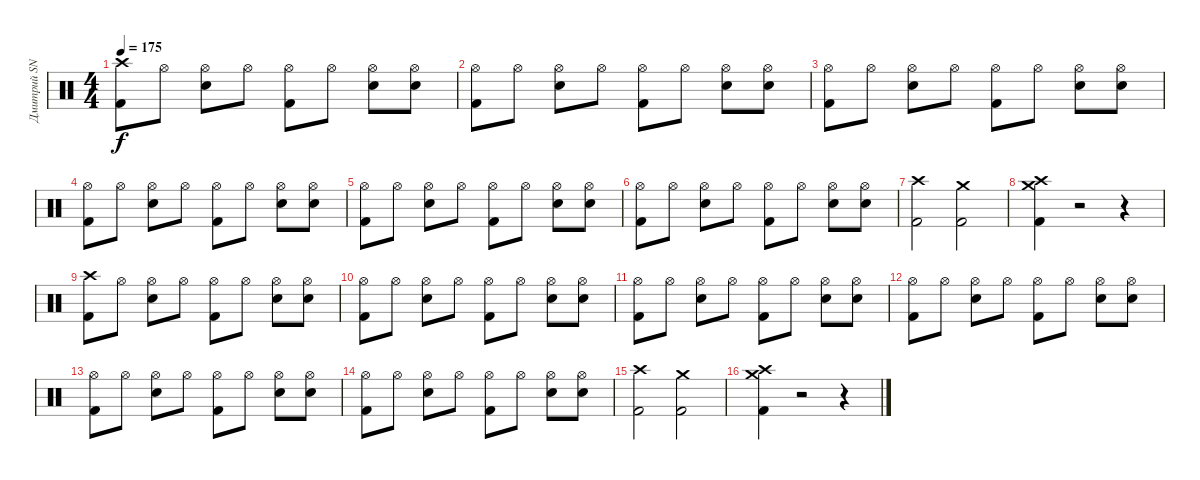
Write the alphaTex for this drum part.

\track ("Дмитрий SNAKE Хакимов" "Дмитрий SN") {instrument percussion}
\staff {score}
\articulation defaults
\ts (4 4)
\tempo 175
\clef neutral
\ks c
("Crash high (hit)" "Kick (hit) 2").8{dy f} "Hi-Hat (open)".8 ("Hi-Hat (open)" "Snare (hit) 2").8 "Hi-Hat (open)".8 ("Hi-Hat (open)" "Kick (hit) 2").8 "Hi-Hat (open)".8 ("Hi-Hat (open)" "Snare (hit) 2").8 ("Hi-Hat (open)" "Snare (hit) 2").8 |
("Hi-Hat (open)" "Kick (hit) 2").8 "Hi-Hat (open)".8 ("Hi-Hat (open)" "Snare (hit) 2").8 "Hi-Hat (open)".8 ("Hi-Hat (open)" "Kick (hit) 2").8 "Hi-Hat (open)".8 ("Hi-Hat (open)" "Snare (hit) 2").8 ("Hi-Hat (open)" "Snare (hit) 2").8 |
("Hi-Hat (open)" "Kick (hit) 2").8 "Hi-Hat (open)".8 ("Hi-Hat (open)" "Snare (hit) 2").8 "Hi-Hat (open)".8 ("Hi-Hat (open)" "Kick (hit) 2").8 "Hi-Hat (open)".8 ("Hi-Hat (open)" "Snare (hit) 2").8 ("Hi-Hat (open)" "Snare (hit) 2").8 |
("Hi-Hat (open)" "Kick (hit) 2").8 "Hi-Hat (open)".8 ("Hi-Hat (open)" "Snare (hit) 2").8 "Hi-Hat (open)".8 ("Hi-Hat (open)" "Kick (hit) 2").8 "Hi-Hat (open)".8 ("Hi-Hat (open)" "Snare (hit) 2").8 ("Hi-Hat (open)" "Snare (hit) 2").8 |
("Hi-Hat (open)" "Kick (hit) 2").8 "Hi-Hat (open)".8 ("Hi-Hat (open)" "Snare (hit) 2").8 "Hi-Hat (open)".8 ("Hi-Hat (open)" "Kick (hit) 2").8 "Hi-Hat (open)".8 ("Hi-Hat (open)" "Snare (hit) 2").8 ("Hi-Hat (open)" "Snare (hit) 2").8 |
("Hi-Hat (open)" "Kick (hit) 2").8 "Hi-Hat (open)".8 ("Hi-Hat (open)" "Snare (hit) 2").8 "Hi-Hat (open)".8 ("Hi-Hat (open)" "Kick (hit) 2").8 "Hi-Hat (open)".8 ("Hi-Hat (open)" "Snare (hit) 2").8 ("Hi-Hat (open)" "Snare (hit) 2").8 |
("Crash high (hit)" "Kick (hit) 2").2 ("Crash medium (hit)" "Kick (hit) 2").2 |
("Crash high (hit)" "Crash medium (hit)" "Kick (hit) 2").4 r.2 r.4 |
("Crash high (hit)" "Kick (hit) 2").8 "Hi-Hat (open)".8 ("Hi-Hat (open)" "Snare (hit) 2").8 "Hi-Hat (open)".8 ("Hi-Hat (open)" "Kick (hit) 2").8 "Hi-Hat (open)".8 ("Hi-Hat (open)" "Snare (hit) 2").8 ("Hi-Hat (open)" "Snare (hit) 2").8 |
("Hi-Hat (open)" "Kick (hit) 2").8 "Hi-Hat (open)".8 ("Hi-Hat (open)" "Snare (hit) 2").8 "Hi-Hat (open)".8 ("Hi-Hat (open)" "Kick (hit) 2").8 "Hi-Hat (open)".8 ("Hi-Hat (open)" "Snare (hit) 2").8 ("Hi-Hat (open)" "Snare (hit) 2").8 |
("Hi-Hat (open)" "Kick (hit) 2").8 "Hi-Hat (open)".8 ("Hi-Hat (open)" "Snare (hit) 2").8 "Hi-Hat (open)".8 ("Hi-Hat (open)" "Kick (hit) 2").8 "Hi-Hat (open)".8 ("Hi-Hat (open)" "Snare (hit) 2").8 ("Hi-Hat (open)" "Snare (hit) 2").8 |
("Hi-Hat (open)" "Kick (hit) 2").8 "Hi-Hat (open)".8 ("Hi-Hat (open)" "Snare (hit) 2").8 "Hi-Hat (open)".8 ("Hi-Hat (open)" "Kick (hit) 2").8 "Hi-Hat (open)".8 ("Hi-Hat (open)" "Snare (hit) 2").8 ("Hi-Hat (open)" "Snare (hit) 2").8 |
("Hi-Hat (open)" "Kick (hit) 2").8 "Hi-Hat (open)".8 ("Hi-Hat (open)" "Snare (hit) 2").8 "Hi-Hat (open)".8 ("Hi-Hat (open)" "Kick (hit) 2").8 "Hi-Hat (open)".8 ("Hi-Hat (open)" "Snare (hit) 2").8 ("Hi-Hat (open)" "Snare (hit) 2").8 |
("Hi-Hat (open)" "Kick (hit) 2").8 "Hi-Hat (open)".8 ("Hi-Hat (open)" "Snare (hit) 2").8 "Hi-Hat (open)".8 ("Hi-Hat (open)" "Kick (hit) 2").8 "Hi-Hat (open)".8 ("Hi-Hat (open)" "Snare (hit) 2").8 ("Hi-Hat (open)" "Snare (hit) 2").8 |
("Crash high (hit)" "Kick (hit) 2").2 ("Crash medium (hit)" "Kick (hit) 2").2 |
("Crash high (hit)" "Crash medium (hit)" "Kick (hit) 2").4 r.2 r.4
